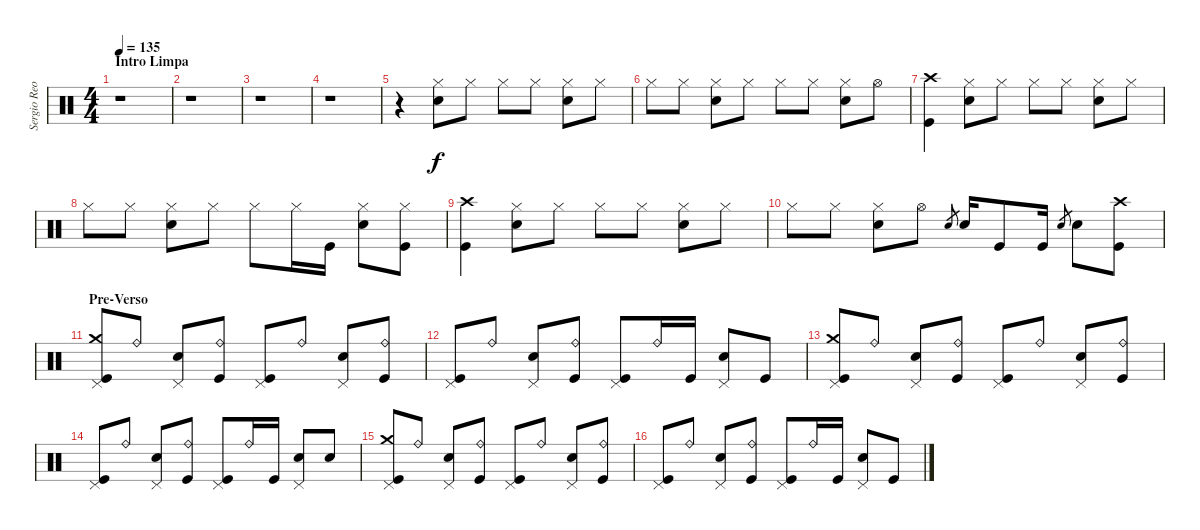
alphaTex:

\track ("Sergio Reoli" "Sergio Reo") {instrument percussion}
\staff {score}
\articulation defaults
\ts (4 4)
\section ("" "Intro Limpa")
\tempo 135
\clef neutral
\ks c
r.1{dy f} |
r.1 |
r.1 |
r.1 |
r.4 ("Hi-Hat (closed)" "Electric Snare (hit)").8 "Hi-Hat (closed)".8 "Hi-Hat (closed)".8 "Hi-Hat (closed)".8 ("Hi-Hat (closed)" "Electric Snare (hit)").8 "Hi-Hat (closed)".8 |
"Hi-Hat (closed)".8 "Hi-Hat (closed)".8 ("Hi-Hat (closed)" "Electric Snare (hit)").8 "Hi-Hat (closed)".8 "Hi-Hat (closed)".8 "Hi-Hat (closed)".8 ("Hi-Hat (closed)" "Electric Snare (hit)").8 "Hi-Hat (open)".8 |
("Crash high (hit)" "Kick (hit)").4 ("Hi-Hat (closed)" "Electric Snare (hit)").8 "Hi-Hat (closed)".8 "Hi-Hat (closed)".8 "Hi-Hat (closed)".8 ("Hi-Hat (closed)" "Electric Snare (hit)").8 "Hi-Hat (closed)".8 |
"Hi-Hat (closed)".8 "Hi-Hat (closed)".8 ("Hi-Hat (closed)" "Electric Snare (hit)").8 "Hi-Hat (closed)".8 "Hi-Hat (closed)".8 "Hi-Hat (closed)".16 "Kick (hit)".16 ("Hi-Hat (closed)" "Electric Snare (hit)").8 ("Hi-Hat (closed)" "Kick (hit)").8 |
("Crash high (hit)" "Kick (hit)").4 ("Hi-Hat (closed)" "Electric Snare (hit)").8 "Hi-Hat (closed)".8 "Hi-Hat (closed)".8 "Hi-Hat (closed)".8 ("Hi-Hat (closed)" "Electric Snare (hit)").8 "Hi-Hat (closed)".8 |
"Hi-Hat (closed)".8 "Hi-Hat (closed)".8 ("Hi-Hat (closed)" "Electric Snare (hit)").8 "Hi-Hat (open)".8 "Electric Snare (hit)".8{gr} "Electric Snare (hit)".16 "Kick (hit)".8 "Kick (hit)".16 "Electric Snare (hit)".8{gr} "Electric Snare (hit)".8 ("Crash high (hit)" "Kick (hit)").8 |
\section ("" "Pre-Verso")
("Crash medium (hit)" "Pedal Hi-Hat (hit)" "Kick (hit)").8 "Ride (bell)".8 ("Electric Snare (hit)" "Pedal Hi-Hat (hit)").8 ("Ride (bell)" "Kick (hit)").8 ("Pedal Hi-Hat (hit)" "Kick (hit)").8 "Ride (bell)".8 ("Electric Snare (hit)" "Pedal Hi-Hat (hit)").8 ("Ride (bell)" "Kick (hit)").8 |
("Pedal Hi-Hat (hit)" "Kick (hit)").8 "Ride (bell)".8 ("Electric Snare (hit)" "Pedal Hi-Hat (hit)").8 ("Ride (bell)" "Kick (hit)").8 ("Pedal Hi-Hat (hit)" "Kick (hit)").8 "Ride (bell)".16 "Kick (hit)".16 ("Electric Snare (hit)" "Pedal Hi-Hat (hit)").8 "Kick (hit)".8 |
("Crash medium (hit)" "Pedal Hi-Hat (hit)" "Kick (hit)").8 "Ride (bell)".8 ("Electric Snare (hit)" "Pedal Hi-Hat (hit)").8 ("Ride (bell)" "Kick (hit)").8 ("Pedal Hi-Hat (hit)" "Kick (hit)").8 "Ride (bell)".8 ("Electric Snare (hit)" "Pedal Hi-Hat (hit)").8 ("Ride (bell)" "Kick (hit)").8 |
("Pedal Hi-Hat (hit)" "Kick (hit)").8 "Ride (bell)".8 ("Electric Snare (hit)" "Pedal Hi-Hat (hit)").8 ("Ride (bell)" "Kick (hit)").8 ("Pedal Hi-Hat (hit)" "Kick (hit)").8 "Ride (bell)".16 "Kick (hit)".16 ("Electric Snare (hit)" "Pedal Hi-Hat (hit)").8 "Electric Snare (hit)".8 |
("Crash medium (hit)" "Pedal Hi-Hat (hit)" "Kick (hit)").8 "Ride (bell)".8 ("Electric Snare (hit)" "Pedal Hi-Hat (hit)").8 ("Ride (bell)" "Kick (hit)").8 ("Pedal Hi-Hat (hit)" "Kick (hit)").8 "Ride (bell)".8 ("Electric Snare (hit)" "Pedal Hi-Hat (hit)").8 ("Ride (bell)" "Kick (hit)").8 |
("Pedal Hi-Hat (hit)" "Kick (hit)").8 "Ride (bell)".8 ("Electric Snare (hit)" "Pedal Hi-Hat (hit)").8 ("Ride (bell)" "Kick (hit)").8 ("Pedal Hi-Hat (hit)" "Kick (hit)").8 "Ride (bell)".16 "Kick (hit)".16 ("Electric Snare (hit)" "Pedal Hi-Hat (hit)").8 "Kick (hit)".8
